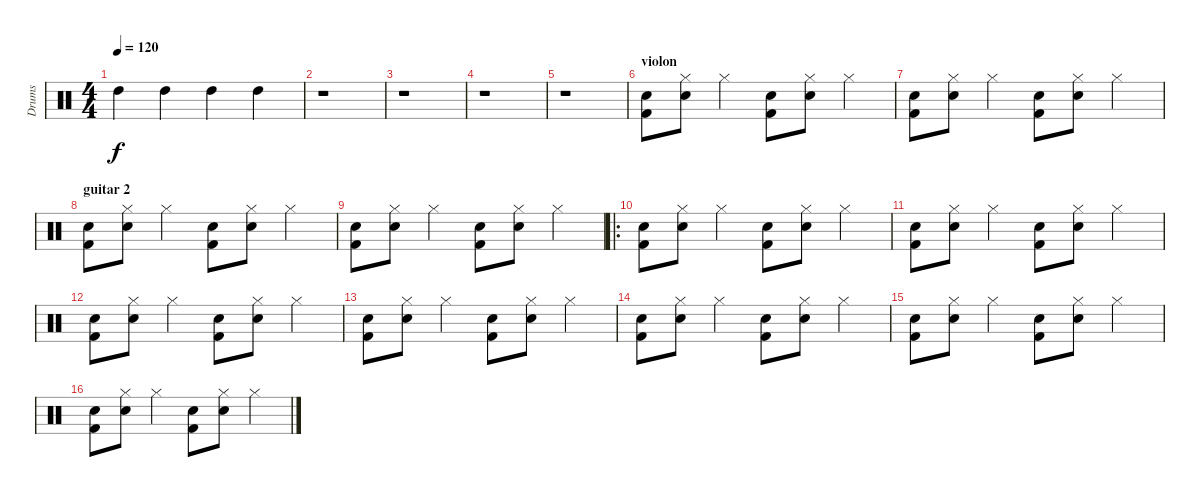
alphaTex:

\track ("Drums" "Drums") {instrument percussion}
\staff {score}
\articulation defaults
\ts (4 4)
\tempo 120
\clef neutral
\ks c "High Tom (hit)".4{dy f} "High Tom (hit)".4 "High Tom (hit)".4 "High Tom (hit)".4
|
r.1 |
r.1 |
r.1 |
r.1 |
\section ("" "violon")
("Kick (hit) 2" "Snare (hit) 2").8 ("Hi-Hat (closed)" "Snare (hit) 2").8 "Hi-Hat (closed)".4 ("Kick (hit) 2" "Snare (hit) 2").8 ("Hi-Hat (closed)" "Snare (hit) 2").8 "Hi-Hat (closed)".4 |
("Kick (hit) 2" "Snare (hit) 2").8 ("Hi-Hat (closed)" "Snare (hit) 2").8 "Hi-Hat (closed)".4 ("Kick (hit) 2" "Snare (hit) 2").8 ("Hi-Hat (closed)" "Snare (hit) 2").8 "Hi-Hat (closed)".4 |
\section ("" "guitar 2")
("Kick (hit) 2" "Snare (hit) 2").8 ("Hi-Hat (closed)" "Snare (hit) 2").8 "Hi-Hat (closed)".4 ("Kick (hit) 2" "Snare (hit) 2").8 ("Hi-Hat (closed)" "Snare (hit) 2").8 "Hi-Hat (closed)".4 |
("Kick (hit) 2" "Snare (hit) 2").8 ("Hi-Hat (closed)" "Snare (hit) 2").8 "Hi-Hat (closed)".4 ("Kick (hit) 2" "Snare (hit) 2").8 ("Hi-Hat (closed)" "Snare (hit) 2").8 "Hi-Hat (closed)".4 |
\ro
("Kick (hit) 2" "Snare (hit) 2").8 ("Hi-Hat (closed)" "Snare (hit) 2").8 "Hi-Hat (closed)".4 ("Kick (hit) 2" "Snare (hit) 2").8 ("Hi-Hat (closed)" "Snare (hit) 2").8 "Hi-Hat (closed)".4 |
("Kick (hit) 2" "Snare (hit) 2").8 ("Hi-Hat (closed)" "Snare (hit) 2").8 "Hi-Hat (closed)".4 ("Kick (hit) 2" "Snare (hit) 2").8 ("Hi-Hat (closed)" "Snare (hit) 2").8 "Hi-Hat (closed)".4 |
("Kick (hit) 2" "Snare (hit) 2").8 ("Hi-Hat (closed)" "Snare (hit) 2").8 "Hi-Hat (closed)".4 ("Kick (hit) 2" "Snare (hit) 2").8 ("Hi-Hat (closed)" "Snare (hit) 2").8 "Hi-Hat (closed)".4 |
("Kick (hit) 2" "Snare (hit) 2").8 ("Hi-Hat (closed)" "Snare (hit) 2").8 "Hi-Hat (closed)".4 ("Kick (hit) 2" "Snare (hit) 2").8 ("Hi-Hat (closed)" "Snare (hit) 2").8 "Hi-Hat (closed)".4 |
("Kick (hit) 2" "Snare (hit) 2").8 ("Hi-Hat (closed)" "Snare (hit) 2").8 "Hi-Hat (closed)".4 ("Kick (hit) 2" "Snare (hit) 2").8 ("Hi-Hat (closed)" "Snare (hit) 2").8 "Hi-Hat (closed)".4 |
("Kick (hit) 2" "Snare (hit) 2").8 ("Hi-Hat (closed)" "Snare (hit) 2").8 "Hi-Hat (closed)".4 ("Kick (hit) 2" "Snare (hit) 2").8 ("Hi-Hat (closed)" "Snare (hit) 2").8 "Hi-Hat (closed)".4 |
("Kick (hit) 2" "Snare (hit) 2").8 ("Hi-Hat (closed)" "Snare (hit) 2").8 "Hi-Hat (closed)".4 ("Kick (hit) 2" "Snare (hit) 2").8 ("Hi-Hat (closed)" "Snare (hit) 2").8 "Hi-Hat (closed)".4
